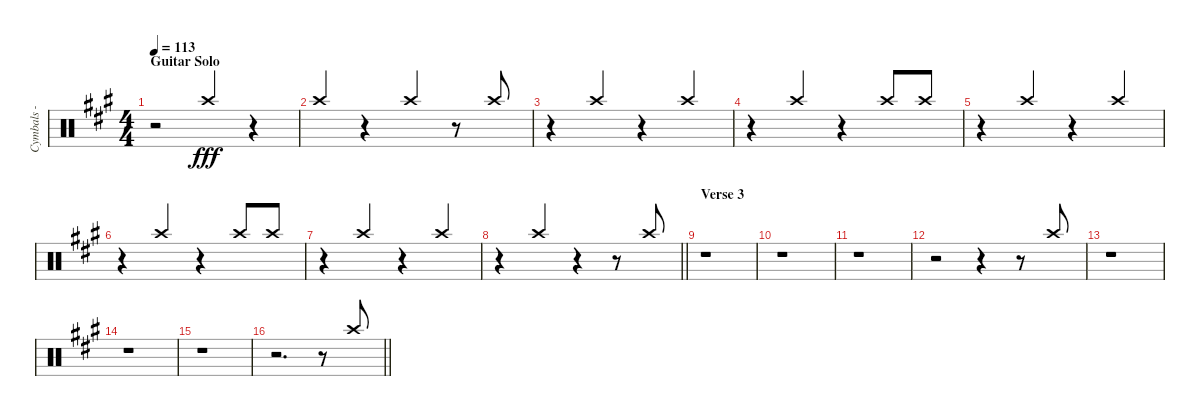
\track ("Cymbals - crash" "Cymbals - ") {instrument percussion}
\staff {score}
\articulation defaults
\ts (4 4)
\section ("" "Guitar Solo")
\tempo 113
\clef neutral
\ks f#minor
r.2{dy fff} "Crash high (hit)".4{beam Up} r.4 |
"Crash high (hit)".4{beam Up} r.4 "Crash high (hit)".4{beam Up} r.8 "Crash high (hit)".8{beam Up} |
r.4 "Crash high (hit)".4{beam Up} r.4 "Crash high (hit)".4{beam Up} |
r.4 "Crash high (hit)".4{beam Up} r.4 "Crash high (hit)".8{beam Up} "Crash high (hit)".8{beam Up} |
r.4 "Crash high (hit)".4{beam Up} r.4 "Crash high (hit)".4{beam Up} |
r.4 "Crash high (hit)".4{beam Up} r.4 "Crash high (hit)".8{beam Up} "Crash high (hit)".8{beam Up} |
r.4 "Crash high (hit)".4{beam Up} r.4 "Crash high (hit)".4{beam Up} |
\barLineRight lightlight
r.4 "Crash high (hit)".4{beam Up} r.4 r.8 "Crash high (hit)".8{beam Up} |
\section ("" "Verse 3")
r.1 |
r.1 |
r.1 |
r.2 r.4 r.8 "Crash high (hit)".8{beam Up} |
r.1 |
r.1 |
r.1 |
\barLineRight lightlight
r.2{d} r.8 "Crash high (hit)".8{beam Up}
